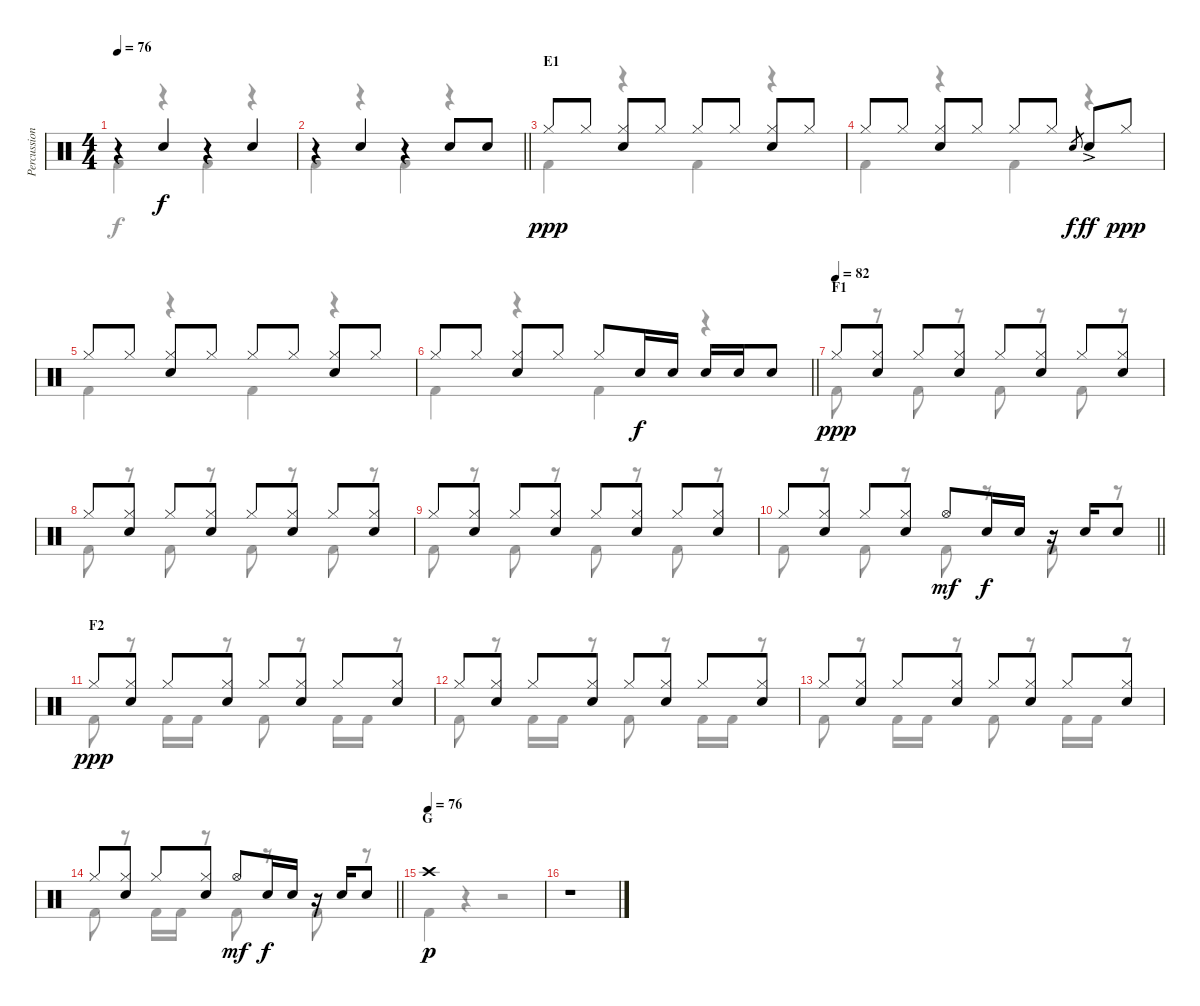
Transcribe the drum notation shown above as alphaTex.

\track ("Percussioni" "Percussion") {instrument percussion}
\staff {score}
\articulation defaults
\voice
\ts (4 4)
\tempo 76
\clef neutral
\ks c
r.4{dy f} "Snare (hit) 2".4 r.4 "Snare (hit) 2".4 |
\barLineRight lightlight
r.4 "Snare (hit) 2".4 r.4 "Snare (hit) 2".8 "Snare (hit) 2".8 |
\section ("" "E1")
"Hi-Hat (closed)".8{dy ppp volume 16} "Hi-Hat (closed)".8 ("Hi-Hat (closed)" "Snare (hit) 2").8 "Hi-Hat (closed)".8 "Hi-Hat (closed)".8 "Hi-Hat (closed)".8 ("Hi-Hat (closed)" "Snare (hit) 2").8 "Hi-Hat (closed)".8 |
"Hi-Hat (closed)".8 "Hi-Hat (closed)".8 ("Hi-Hat (closed)" "Snare (hit) 2").8 "Hi-Hat (closed)".8 "Hi-Hat (closed)".8 "Hi-Hat (closed)".8 "Snare (hit) 2".8{gr dy f} "Snare (hit) 2"{ac}.8{dy ff} "Hi-Hat (closed)".8{dy ppp} |
"Hi-Hat (closed)".8 "Hi-Hat (closed)".8 ("Hi-Hat (closed)" "Snare (hit) 2").8 "Hi-Hat (closed)".8 "Hi-Hat (closed)".8 "Hi-Hat (closed)".8 ("Hi-Hat (closed)" "Snare (hit) 2").8 "Hi-Hat (closed)".8 |
\barLineRight lightlight "Hi-Hat (closed)".8 "Hi-Hat (closed)".8
("Hi-Hat (closed)" "Snare (hit) 2").8 "Hi-Hat (closed)".8 "Hi-Hat (closed)".8 "Snare (hit) 2".16{dy f} "Snare (hit) 2".16 "Snare (hit) 2".16 "Snare (hit) 2".16 "Snare (hit) 2".8 |
\section ("" "F1")
\tempo (82)
"Hi-Hat (closed)".8{dy ppp} ("Hi-Hat (closed)" "Snare (hit) 2").8 "Hi-Hat (closed)".8 ("Hi-Hat (closed)" "Snare (hit) 2").8 "Hi-Hat (closed)".8 ("Hi-Hat (closed)" "Snare (hit) 2").8 "Hi-Hat (closed)".8 ("Hi-Hat (closed)" "Snare (hit) 2").8 |
"Hi-Hat (closed)".8 ("Hi-Hat (closed)" "Snare (hit) 2").8 "Hi-Hat (closed)".8 ("Hi-Hat (closed)" "Snare (hit) 2").8 "Hi-Hat (closed)".8 ("Hi-Hat (closed)" "Snare (hit) 2").8 "Hi-Hat (closed)".8 ("Hi-Hat (closed)" "Snare (hit) 2").8 |
"Hi-Hat (closed)".8 ("Hi-Hat (closed)" "Snare (hit) 2").8 "Hi-Hat (closed)".8 ("Hi-Hat (closed)" "Snare (hit) 2").8 "Hi-Hat (closed)".8 ("Hi-Hat (closed)" "Snare (hit) 2").8 "Hi-Hat (closed)".8 ("Hi-Hat (closed)" "Snare (hit) 2").8 |
\barLineRight lightlight "Hi-Hat (closed)".8
("Hi-Hat (closed)" "Snare (hit) 2").8 "Hi-Hat (closed)".8 ("Hi-Hat (closed)" "Snare (hit) 2").8 "Hi-Hat (open)".8{dy mf} "Snare (hit) 2".16{dy f} "Snare (hit) 2".16 r.16 "Snare (hit) 2".16 "Snare (hit) 2".8 |
\section ("" "F2")
"Hi-Hat (closed)".8{dy ppp} ("Hi-Hat (closed)" "Snare (hit) 2").8 "Hi-Hat (closed)".8 ("Hi-Hat (closed)" "Snare (hit) 2").8 "Hi-Hat (closed)".8 ("Hi-Hat (closed)" "Snare (hit) 2").8 "Hi-Hat (closed)".8 ("Hi-Hat (closed)" "Snare (hit) 2").8 |
"Hi-Hat (closed)".8 ("Hi-Hat (closed)" "Snare (hit) 2").8 "Hi-Hat (closed)".8 ("Hi-Hat (closed)" "Snare (hit) 2").8 "Hi-Hat (closed)".8 ("Hi-Hat (closed)" "Snare (hit) 2").8 "Hi-Hat (closed)".8 ("Hi-Hat (closed)" "Snare (hit) 2").8 |
"Hi-Hat (closed)".8 ("Hi-Hat (closed)" "Snare (hit) 2").8 "Hi-Hat (closed)".8 ("Hi-Hat (closed)" "Snare (hit) 2").8 "Hi-Hat (closed)".8 ("Hi-Hat (closed)" "Snare (hit) 2").8 "Hi-Hat (closed)".8 ("Hi-Hat (closed)" "Snare (hit) 2").8 |
\barLineRight lightlight "Hi-Hat (closed)".8
("Hi-Hat (closed)" "Snare (hit) 2").8 "Hi-Hat (closed)".8 ("Hi-Hat (closed)" "Snare (hit) 2").8 "Hi-Hat (open)".8{dy mf} "Snare (hit) 2".16{dy f} "Snare (hit) 2".16 r.16 "Snare (hit) 2".16 "Snare (hit) 2".8 |
\section ("" "G")
\tempo (76)
"Crash high (hit)".1{dy p volume 13} |
r.1
\voice
\clef neutral
\ottava regular
\simile none
\ks c "Kick (hit) 2".4{dy f}
r.4 "Kick (hit) 2".4 r.4 |
\barLineRight lightlight "Kick (hit) 2".4
r.4 "Kick (hit) 2".4 r.4 |
"Kick (hit) 2".4 r.4 "Kick (hit) 2".4 r.4 |
"Kick (hit) 2".4 r.4 "Kick (hit) 2".4 r.4 |
"Kick (hit) 2".4 r.4 "Kick (hit) 2".4 r.4 |
\barLineRight lightlight "Kick (hit) 2".4
r.4 "Kick (hit) 2".4 r.4 |
"Kick (hit) 2".8 r.8 "Kick (hit) 2".8 r.8 "Kick (hit) 2".8 r.8 "Kick (hit) 2".8 r.8 |
"Kick (hit) 2".8 r.8 "Kick (hit) 2".8 r.8 "Kick (hit) 2".8 r.8 "Kick (hit) 2".8 r.8 |
"Kick (hit) 2".8 r.8 "Kick (hit) 2".8 r.8 "Kick (hit) 2".8 r.8 "Kick (hit) 2".8 r.8 |
\barLineRight lightlight "Kick (hit) 2".8
r.8 "Kick (hit) 2".8 r.8 "Kick (hit) 2".8 r.8 "Kick (hit) 2".8 r.8 |
"Kick (hit) 2".8 r.8 "Kick (hit) 2".16 "Kick (hit) 2".16 r.8 "Kick (hit) 2".8 r.8 "Kick (hit) 2".16 "Kick (hit) 2".16 r.8 |
"Kick (hit) 2".8 r.8 "Kick (hit) 2".16 "Kick (hit) 2".16 r.8 "Kick (hit) 2".8 r.8 "Kick (hit) 2".16 "Kick (hit) 2".16 r.8 |
"Kick (hit) 2".8 r.8 "Kick (hit) 2".16 "Kick (hit) 2".16 r.8 "Kick (hit) 2".8 r.8 "Kick (hit) 2".16 "Kick (hit) 2".16 r.8 |
\barLineRight lightlight "Kick (hit) 2".8
r.8 "Kick (hit) 2".16 "Kick (hit) 2".16 r.8 "Kick (hit) 2".8 r.8 "Kick (hit) 2".8 r.8 |
"Kick (hit) 2".4 r.4 r.2 |
r.1
